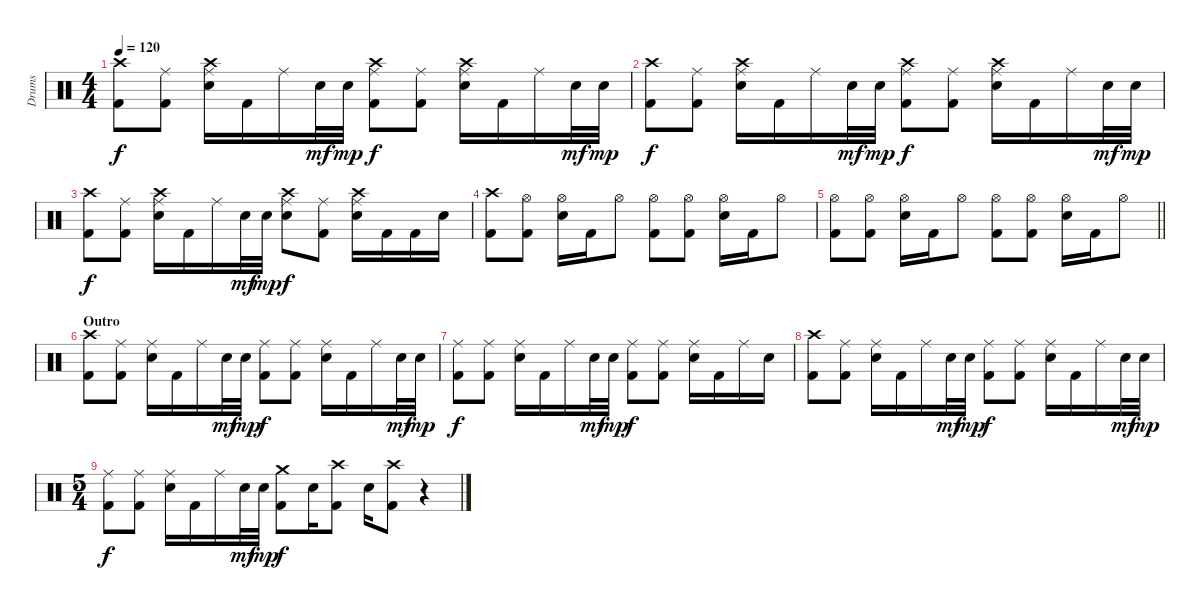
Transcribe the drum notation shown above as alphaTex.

\track ("Drums" "Drums") {instrument percussion}
\staff {score}
\articulation defaults
\ts (4 4)
\tempo 120
\clef neutral
\ks c
("Crash high (hit)" "Kick (hit) 2").8{dy f} ("Ride (middle)" "Kick (hit) 2").8 ("Ride (middle)" "Crash high (hit)" "Snare (hit) 2").16 "Kick (hit) 2".16 "Ride (middle)".16 "Snare (hit) 2".32{dy mf} "Snare (hit) 2".32{dy mp} ("Ride (middle)" "Crash high (hit)" "Kick (hit) 2").8{dy f} ("Ride (middle)" "Kick (hit) 2").8 ("Ride (middle)" "Crash high (hit)" "Snare (hit) 2").16 "Kick (hit) 2".16 "Ride (middle)".16 "Snare (hit) 2".32{dy mf} "Snare (hit) 2".32{dy mp} |
("Crash high (hit)" "Kick (hit) 2").8{dy f} ("Ride (middle)" "Kick (hit) 2").8 ("Ride (middle)" "Crash high (hit)" "Snare (hit) 2").16 "Kick (hit) 2".16 "Ride (middle)".16 "Snare (hit) 2".32{dy mf} "Snare (hit) 2".32{dy mp} ("Ride (middle)" "Crash high (hit)" "Kick (hit) 2").8{dy f} ("Ride (middle)" "Kick (hit) 2").8 ("Ride (middle)" "Crash high (hit)" "Snare (hit) 2").16 "Kick (hit) 2".16 "Ride (middle)".16 "Snare (hit) 2".32{dy mf} "Snare (hit) 2".32{dy mp} |
("Crash high (hit)" "Kick (hit) 2").8{dy f} ("Ride (middle)" "Kick (hit) 2").8 ("Ride (middle)" "Crash high (hit)" "Snare (hit) 2").16 "Kick (hit) 2".16 "Ride (middle)".16 "Snare (hit) 2".32{dy mf} "Snare (hit) 2".32{dy mp} ("Ride (middle)" "Crash high (hit)" "Snare (hit) 2").8{dy f} ("Ride (middle)" "Kick (hit) 2").8 ("Ride (middle)" "Crash high (hit)" "Snare (hit) 2").16 "Kick (hit) 2".16 "Kick (hit) 2".16 "Snare (hit) 2".16 |
("Crash high (hit)" "Kick (hit) 2").8 ("Hi-Hat (open)" "Kick (hit) 2").8 ("Hi-Hat (open)" "Snare (hit) 2").16 "Kick (hit) 2".16 "Hi-Hat (open)".8 ("Hi-Hat (open)" "Kick (hit) 2").8 ("Hi-Hat (open)" "Kick (hit) 2").8 ("Hi-Hat (open)" "Snare (hit) 2").16 "Kick (hit) 2".16 "Hi-Hat (open)".8 |
\barLineRight lightlight
("Hi-Hat (open)" "Kick (hit) 2").8 ("Hi-Hat (open)" "Kick (hit) 2").8 ("Hi-Hat (open)" "Snare (hit) 2").16 "Kick (hit) 2".16 "Hi-Hat (open)".8 ("Hi-Hat (open)" "Kick (hit) 2").8 ("Hi-Hat (open)" "Kick (hit) 2").8 ("Hi-Hat (open)" "Snare (hit) 2").16 "Kick (hit) 2".16 "Hi-Hat (open)".8 |
\section ("" "Outro")
("Crash high (hit)" "Kick (hit) 2").8 ("Ride (middle)" "Kick (hit) 2").8 ("Ride (middle)" "Snare (hit) 2").16 "Kick (hit) 2".16 "Ride (middle)".16 "Snare (hit) 2".32{dy mf} "Snare (hit) 2".32{dy mp} ("Ride (middle)" "Kick (hit) 2").8{dy f} ("Ride (middle)" "Kick (hit) 2").8 ("Ride (middle)" "Snare (hit) 2").16 "Kick (hit) 2".16 "Ride (middle)".16 "Snare (hit) 2".32{dy mf} "Snare (hit) 2".32{dy mp} |
("Ride (middle)" "Kick (hit) 2").8{dy f} ("Ride (middle)" "Kick (hit) 2").8 ("Ride (middle)" "Snare (hit) 2").16 "Kick (hit) 2".16 "Ride (middle)".16 "Snare (hit) 2".32{dy mf} "Snare (hit) 2".32{dy mp} ("Ride (middle)" "Kick (hit) 2").8{dy f} ("Ride (middle)" "Kick (hit) 2").8 ("Ride (middle)" "Snare (hit) 2").16 "Kick (hit) 2".16 "Ride (middle)".16 "Snare (hit) 2".16 |
("Crash high (hit)" "Kick (hit) 2").8 ("Ride (middle)" "Kick (hit) 2").8 ("Ride (middle)" "Snare (hit) 2").16 "Kick (hit) 2".16 "Ride (middle)".16 "Snare (hit) 2".32{dy mf} "Snare (hit) 2".32{dy mp} ("Ride (middle)" "Kick (hit) 2").8{dy f} ("Ride (middle)" "Kick (hit) 2").8 ("Ride (middle)" "Snare (hit) 2").16 "Kick (hit) 2".16 "Ride (middle)".16 "Snare (hit) 2".32{dy mf} "Snare (hit) 2".32{dy mp} |
\ts (5 4)
("Ride (middle)" "Kick (hit) 2").8{dy f} ("Ride (middle)" "Kick (hit) 2").8 ("Ride (middle)" "Snare (hit) 2").16 "Kick (hit) 2".16 "Ride (middle)".16 "Snare (hit) 2".32{dy mf} "Snare (hit) 2".32{dy mp} ("Crash medium (hit)" "Kick (hit) 2").8{dy f} "Snare (hit) 2".16 ("Crash high (hit)" "Kick (hit) 2").8 "Snare (hit) 2".16 ("Crash high (hit)" "Kick (hit) 2").8 r.4
